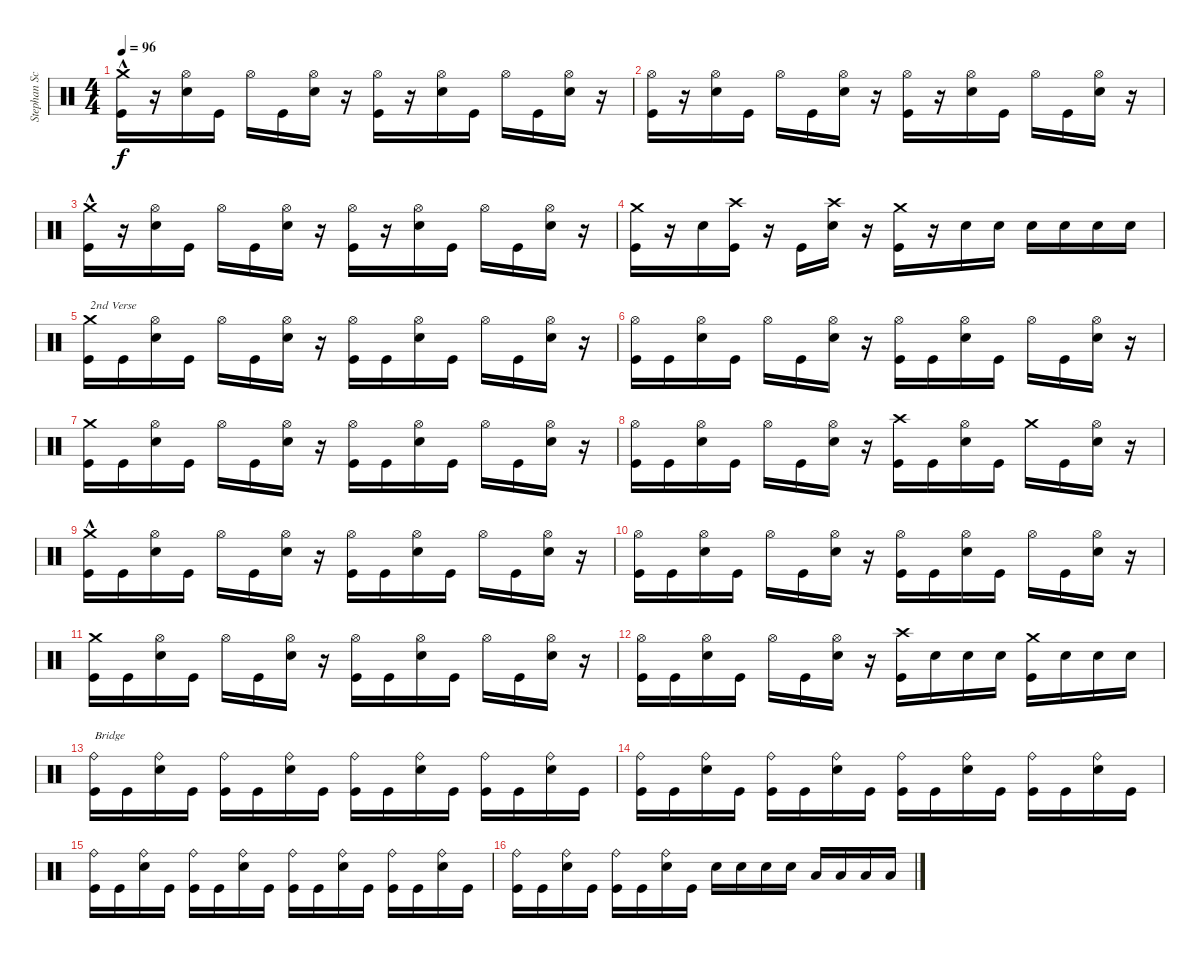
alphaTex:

\track ("Stephan Schwarzmann" "Stephan Sc") {instrument percussion}
\staff {score}
\articulation defaults
\ts (4 4)
\tempo 96
\clef neutral
\ks c
("Kick (hit)" "Crash medium (hit)"{hac}).16{dy f} r.16 ("Snare (hit) 2" "Hi-Hat (open)").16 "Kick (hit)".16 "Hi-Hat (open)".16 "Kick (hit)".16 ("Snare (hit) 2" "Hi-Hat (open)").16 r.16 ("Kick (hit)" "Hi-Hat (open)").16 r.16 ("Snare (hit) 2" "Hi-Hat (open)").16 "Kick (hit)".16 "Hi-Hat (open)".16 "Kick (hit)".16 ("Snare (hit) 2" "Hi-Hat (open)").16 r.16 |
("Kick (hit)" "Hi-Hat (open)").16 r.16 ("Snare (hit) 2" "Hi-Hat (open)").16 "Kick (hit)".16 "Hi-Hat (open)".16 "Kick (hit)".16 ("Snare (hit) 2" "Hi-Hat (open)").16 r.16 ("Kick (hit)" "Hi-Hat (open)").16 r.16 ("Snare (hit) 2" "Hi-Hat (open)").16 "Kick (hit)".16 "Hi-Hat (open)".16 "Kick (hit)".16 ("Snare (hit) 2" "Hi-Hat (open)").16 r.16 |
("Kick (hit)" "Crash medium (hit)"{hac}).16 r.16 ("Snare (hit) 2" "Hi-Hat (open)").16 "Kick (hit)".16 "Hi-Hat (open)".16 "Kick (hit)".16 ("Snare (hit) 2" "Hi-Hat (open)").16 r.16 ("Kick (hit)" "Hi-Hat (open)").16 r.16 ("Snare (hit) 2" "Hi-Hat (open)").16 "Kick (hit)".16 "Hi-Hat (open)".16 "Kick (hit)".16 ("Snare (hit) 2" "Hi-Hat (open)").16 r.16 |
("Kick (hit)" "Crash medium (hit)").16 r.16 "Snare (hit) 2".16 ("Kick (hit)" "Crash high (hit)").16 r.16 "Kick (hit)".16 ("Snare (hit) 2" "Crash high (hit)").16 r.16 ("Kick (hit)" "Crash medium (hit)").16 r.16 "Snare (hit) 2".16 "Snare (hit) 2".16 "Snare (hit) 2".16 "Snare (hit) 2".16 "Snare (hit) 2".16 "Snare (hit) 2".16 |
("Kick (hit)" "Crash medium (hit)").16{txt "2nd Verse"} "Kick (hit)".16 ("Snare (hit) 2" "Hi-Hat (open)").16 "Kick (hit)".16 "Hi-Hat (open)".16 "Kick (hit)".16 ("Hi-Hat (open)" "Snare (hit) 2").16 r.16 ("Hi-Hat (open)" "Kick (hit)").16 "Kick (hit)".16 ("Snare (hit) 2" "Hi-Hat (open)").16 "Kick (hit)".16 "Hi-Hat (open)".16 "Kick (hit)".16 ("Hi-Hat (open)" "Snare (hit) 2").16 r.16 |
("Kick (hit)" "Hi-Hat (open)").16 "Kick (hit)".16 ("Snare (hit) 2" "Hi-Hat (open)").16 "Kick (hit)".16 "Hi-Hat (open)".16 "Kick (hit)".16 ("Hi-Hat (open)" "Snare (hit) 2").16 r.16 ("Hi-Hat (open)" "Kick (hit)").16 "Kick (hit)".16 ("Snare (hit) 2" "Hi-Hat (open)").16 "Kick (hit)".16 "Hi-Hat (open)".16 "Kick (hit)".16 ("Hi-Hat (open)" "Snare (hit) 2").16 r.16 |
("Kick (hit)" "Crash medium (hit)").16 "Kick (hit)".16 ("Snare (hit) 2" "Hi-Hat (open)").16 "Kick (hit)".16 "Hi-Hat (open)".16 "Kick (hit)".16 ("Hi-Hat (open)" "Snare (hit) 2").16 r.16 ("Hi-Hat (open)" "Kick (hit)").16 "Kick (hit)".16 ("Snare (hit) 2" "Hi-Hat (open)").16 "Kick (hit)".16 "Hi-Hat (open)".16 "Kick (hit)".16 ("Hi-Hat (open)" "Snare (hit) 2").16 r.16 |
("Hi-Hat (open)" "Kick (hit)").16 "Kick (hit)".16 ("Snare (hit) 2" "Hi-Hat (open)").16 "Kick (hit)".16 "Hi-Hat (open)".16 "Kick (hit)".16 ("Hi-Hat (open)" "Snare (hit) 2").16 r.16 ("Kick (hit)" "Crash high (hit)").16 "Kick (hit)".16 ("Snare (hit) 2" "Hi-Hat (open)").16 "Kick (hit)".16 "Crash medium (hit)".16 "Kick (hit)".16 ("Hi-Hat (open)" "Snare (hit) 2").16 r.16 |
("Kick (hit)" "Crash medium (hit)"{hac}).16 "Kick (hit)".16 ("Snare (hit) 2" "Hi-Hat (open)").16 "Kick (hit)".16 "Hi-Hat (open)".16 "Kick (hit)".16 ("Hi-Hat (open)" "Snare (hit) 2").16 r.16 ("Hi-Hat (open)" "Kick (hit)").16 "Kick (hit)".16 ("Snare (hit) 2" "Hi-Hat (open)").16 "Kick (hit)".16 "Hi-Hat (open)".16 "Kick (hit)".16 ("Hi-Hat (open)" "Snare (hit) 2").16 r.16 |
("Kick (hit)" "Hi-Hat (open)").16 "Kick (hit)".16 ("Snare (hit) 2" "Hi-Hat (open)").16 "Kick (hit)".16 "Hi-Hat (open)".16 "Kick (hit)".16 ("Hi-Hat (open)" "Snare (hit) 2").16 r.16 ("Hi-Hat (open)" "Kick (hit)").16 "Kick (hit)".16 ("Snare (hit) 2" "Hi-Hat (open)").16 "Kick (hit)".16 "Hi-Hat (open)".16 "Kick (hit)".16 ("Hi-Hat (open)" "Snare (hit) 2").16 r.16 |
("Kick (hit)" "Crash medium (hit)").16 "Kick (hit)".16 ("Snare (hit) 2" "Hi-Hat (open)").16 "Kick (hit)".16 "Hi-Hat (open)".16 "Kick (hit)".16 ("Hi-Hat (open)" "Snare (hit) 2").16 r.16 ("Hi-Hat (open)" "Kick (hit)").16 "Kick (hit)".16 ("Snare (hit) 2" "Hi-Hat (open)").16 "Kick (hit)".16 "Hi-Hat (open)".16 "Kick (hit)".16 ("Hi-Hat (open)" "Snare (hit) 2").16 r.16 |
("Hi-Hat (open)" "Kick (hit)").16 "Kick (hit)".16 ("Snare (hit) 2" "Hi-Hat (open)").16 "Kick (hit)".16 "Hi-Hat (open)".16 "Kick (hit)".16 ("Hi-Hat (open)" "Snare (hit) 2").16 r.16 ("Kick (hit)" "Crash high (hit)").16 "Snare (hit) 2".16 "Snare (hit) 2".16 "Snare (hit) 2".16 ("Crash medium (hit)" "Kick (hit)").16 "Snare (hit) 2".16 "Snare (hit) 2".16 "Snare (hit) 2".16 |
("Kick (hit)" "Ride (bell)").16{txt "Bridge"} "Kick (hit)".16 ("Snare (hit) 2" "Ride (bell)").16 "Kick (hit)".16 ("Kick (hit)" "Ride (bell)").16 "Kick (hit)".16 ("Snare (hit) 2" "Ride (bell)").16 "Kick (hit)".16 ("Kick (hit)" "Ride (bell)").16 "Kick (hit)".16 ("Snare (hit) 2" "Ride (bell)").16 "Kick (hit)".16 ("Kick (hit)" "Ride (bell)").16 "Kick (hit)".16 ("Snare (hit) 2" "Ride (bell)").16 "Kick (hit)".16 |
("Kick (hit)" "Ride (bell)").16 "Kick (hit)".16 ("Snare (hit) 2" "Ride (bell)").16 "Kick (hit)".16 ("Kick (hit)" "Ride (bell)").16 "Kick (hit)".16 ("Snare (hit) 2" "Ride (bell)").16 "Kick (hit)".16 ("Kick (hit)" "Ride (bell)").16 "Kick (hit)".16 ("Snare (hit) 2" "Ride (bell)").16 "Kick (hit)".16 ("Kick (hit)" "Ride (bell)").16 "Kick (hit)".16 ("Snare (hit) 2" "Ride (bell)").16 "Kick (hit)".16 |
("Kick (hit)" "Ride (bell)").16 "Kick (hit)".16 ("Snare (hit) 2" "Ride (bell)").16 "Kick (hit)".16 ("Kick (hit)" "Ride (bell)").16 "Kick (hit)".16 ("Snare (hit) 2" "Ride (bell)").16 "Kick (hit)".16 ("Kick (hit)" "Ride (bell)").16 "Kick (hit)".16 ("Snare (hit) 2" "Ride (bell)").16 "Kick (hit)".16 ("Kick (hit)" "Ride (bell)").16 "Kick (hit)".16 ("Snare (hit) 2" "Ride (bell)").16 "Kick (hit)".16 |
("Kick (hit)" "Ride (bell)").16 "Kick (hit)".16 ("Snare (hit) 2" "Ride (bell)").16 "Kick (hit)".16 ("Kick (hit)" "Ride (bell)").16 "Kick (hit)".16 ("Snare (hit) 2" "Ride (bell)").16 "Kick (hit)".16 "Snare (hit) 2".16 "Snare (hit) 2".16 "Snare (hit) 2".16 "Snare (hit) 2".16 "Low Tom (hit)".16 "Low Tom (hit)".16 "Low Floor Tom (hit)".16 "Low Floor Tom (hit)".16
